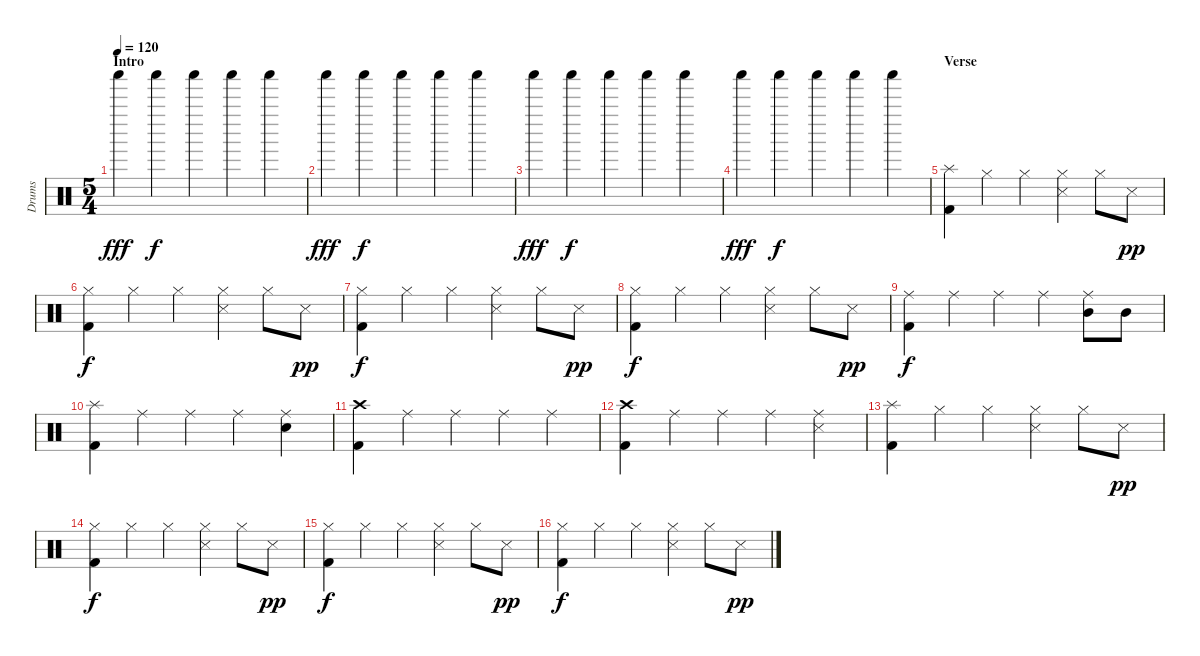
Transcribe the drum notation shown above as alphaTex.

\track ("Drums" "Drums") {instrument percussion}
\staff {score}
\articulation defaults
\ts (5 4)
\section ("" "Intro")
\tempo 120
\clef neutral
\ks c "Shaker (hit)".4{dy fff} "Shaker (hit)".4{dy f} "Shaker (hit)".4 "Shaker (hit)".4 "Shaker (hit)".4
|
"Shaker (hit)".4{dy fff} "Shaker (hit)".4{dy f} "Shaker (hit)".4 "Shaker (hit)".4 "Shaker (hit)".4 |
"Shaker (hit)".4{dy fff} "Shaker (hit)".4{dy f} "Shaker (hit)".4 "Shaker (hit)".4 "Shaker (hit)".4 |
"Shaker (hit)".4{dy fff} "Shaker (hit)".4{dy f} "Shaker (hit)".4 "Shaker (hit)".4 "Shaker (hit)".4 |
\section ("" "Verse")
("Splash (hit)" "Kick (hit) 2").4 "Hi-Hat (closed)".4 "Hi-Hat (closed)".4 ("Hi-Hat (closed)" "Snare (side stick) 3").4 "Hi-Hat (closed)".8 "Snare (side stick) 3".8{dy pp} |
("Hi-Hat (closed)" "Kick (hit) 2").4{dy f} "Hi-Hat (closed)".4 "Hi-Hat (closed)".4 ("Hi-Hat (closed)" "Snare (side stick) 3").4 "Hi-Hat (closed)".8 "Snare (side stick) 3".8{dy pp} |
("Hi-Hat (closed)" "Kick (hit) 2").4{dy f} "Hi-Hat (closed)".4 "Hi-Hat (closed)".4 ("Hi-Hat (closed)" "Snare (side stick) 3").4 "Hi-Hat (closed)".8 "Snare (side stick) 3".8{dy pp} |
("Hi-Hat (closed)" "Kick (hit) 2").4{dy f} "Hi-Hat (closed)".4 "Hi-Hat (closed)".4 ("Hi-Hat (closed)" "Snare (side stick) 3").4 "Hi-Hat (closed)".8 "Snare (side stick) 3".8{dy pp} |
("Ride (middle)" "Kick (hit) 2").4{dy f} "Ride (middle)".4 "Ride (middle)".4 "Ride (middle)".4 ("Ride (middle)" "Mid Tom (hit)").8 "Mid Tom (hit)".8 |
("Splash (hit)" "Kick (hit) 2").4 "Ride (middle)".4 "Ride (middle)".4 "Ride (middle)".4 ("Ride (middle)" "Electric Snare (hit)").4 |
("Crash high (hit)" "Kick (hit) 2").4 "Ride (middle)".4 "Ride (middle)".4 "Ride (middle)".4 "Ride (middle)".4 |
("Crash high (hit)" "Kick (hit) 2").4 "Ride (middle)".4 "Ride (middle)".4 "Ride (middle)".4 ("Ride (middle)" "Snare (side stick) 3").4 |
("Splash (hit)" "Kick (hit) 2").4 "Hi-Hat (closed)".4 "Hi-Hat (closed)".4 ("Hi-Hat (closed)" "Snare (side stick) 3").4 "Hi-Hat (closed)".8 "Snare (side stick) 3".8{dy pp} |
("Hi-Hat (closed)" "Kick (hit) 2").4{dy f} "Hi-Hat (closed)".4 "Hi-Hat (closed)".4 ("Hi-Hat (closed)" "Snare (side stick) 3").4 "Hi-Hat (closed)".8 "Snare (side stick) 3".8{dy pp} |
("Hi-Hat (closed)" "Kick (hit) 2").4{dy f} "Hi-Hat (closed)".4 "Hi-Hat (closed)".4 ("Hi-Hat (closed)" "Snare (side stick) 3").4 "Hi-Hat (closed)".8 "Snare (side stick) 3".8{dy pp} |
("Hi-Hat (closed)" "Kick (hit) 2").4{dy f} "Hi-Hat (closed)".4 "Hi-Hat (closed)".4 ("Hi-Hat (closed)" "Snare (side stick) 3").4 "Hi-Hat (closed)".8 "Snare (side stick) 3".8{dy pp}
